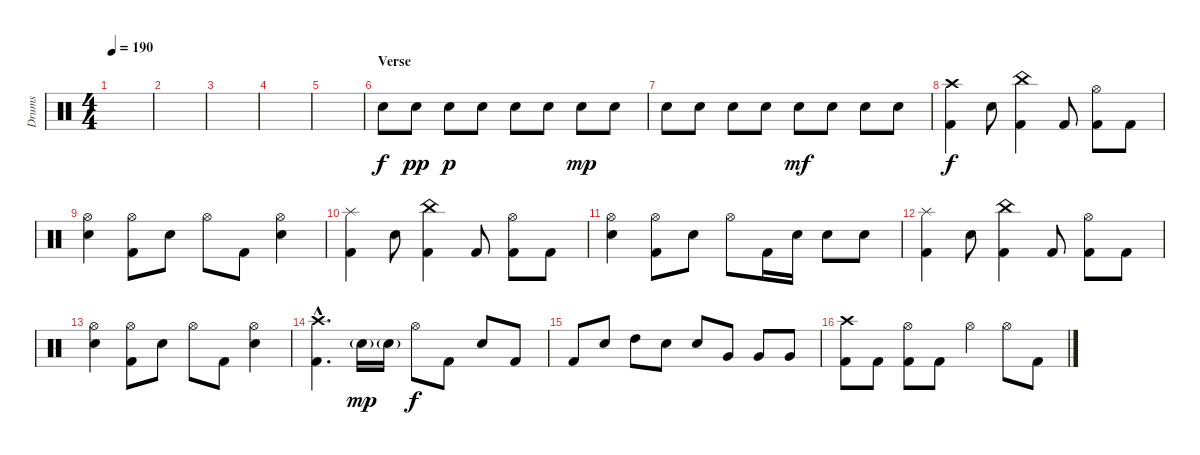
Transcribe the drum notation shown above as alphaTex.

\track ("Drums" "Drums") {instrument percussion}
\staff {score}
\articulation defaults
\ts (4 4)
\tempo 190
\clef neutral
\ks c
|
|
|
|
|
\section ("" "Verse")
"Snare (hit) 2".8 "Snare (hit) 2".8{dy pp} "Snare (hit) 2".8{dy p} "Snare (hit) 2".8 "Snare (hit) 2".8 "Snare (hit) 2".8 "Snare (hit) 2".8{dy mp} "Snare (hit) 2".8 |
"Snare (hit) 2".8 "Snare (hit) 2".8 "Snare (hit) 2".8 "Snare (hit) 2".8 "Snare (hit) 2".8{dy mf} "Snare (hit) 2".8 "Snare (hit) 2".8 "Snare (hit) 2".8 |
("Crash high (hit)" "Kick (hit) 2").4{dy f} "Snare (hit) 2".8 ("China (hit)" "Kick (hit) 2").4 "Kick (hit) 2".8 ("Hi-Hat (open)" "Kick (hit) 2").8 "Kick (hit) 2".8 |
("Hi-Hat (open)" "Snare (hit) 2").4 ("Hi-Hat (open)" "Kick (hit) 2").8 "Snare (hit) 2".8 "Hi-Hat (open)".8 "Kick (hit) 2".8 ("Hi-Hat (open)" "Snare (hit) 2").4 |
("Splash (hit)" "Kick (hit) 2").4 "Snare (hit) 2".8 ("China (hit)" "Kick (hit) 2").4 "Kick (hit) 2".8 ("Hi-Hat (open)" "Kick (hit) 2").8 "Kick (hit) 2".8 |
("Hi-Hat (open)" "Snare (hit) 2").4 ("Hi-Hat (open)" "Kick (hit) 2").8 "Snare (hit) 2".8 "Hi-Hat (open)".8 "Kick (hit) 2".16 "Snare (hit) 2".16 "Snare (hit) 2".8 "Snare (hit) 2".8 |
("Splash (hit)" "Kick (hit) 2").4 "Snare (hit) 2".8 ("China (hit)" "Kick (hit) 2").4 "Kick (hit) 2".8 ("Hi-Hat (open)" "Kick (hit) 2").8 "Kick (hit) 2".8 |
("Hi-Hat (open)" "Snare (hit) 2").4 ("Hi-Hat (open)" "Kick (hit) 2").8 "Snare (hit) 2".8 "Hi-Hat (open)".8 "Kick (hit) 2".8 ("Hi-Hat (open)" "Snare (hit) 2").4 |
("Crash high (hit)"{hac} "Kick (hit) 2"{hac}).4{d} "Snare (hit) 2"{g}.16{dy mp} "Snare (hit) 2"{g}.16 "Hi-Hat (open)".8{dy f} "Kick (hit) 2".8 "Snare (hit) 2".8 "Kick (hit) 2".8 |
"Kick (hit) 2".8 "Snare (hit) 2".8 "High Tom (hit)".8 "Snare (hit) 2".8 "Snare (hit) 2".8 "Very Low Tom (hit)".8 "Very Low Tom (hit)".8 "Very Low Tom (hit)".8 |
("Crash high (hit)" "Kick (hit) 2").8 "Kick (hit) 2".8 ("Hi-Hat (open)" "Kick (hit) 2").8 "Kick (hit) 2".8 "Hi-Hat (open)".4 "Hi-Hat (open)".8 "Kick (hit) 2".8
